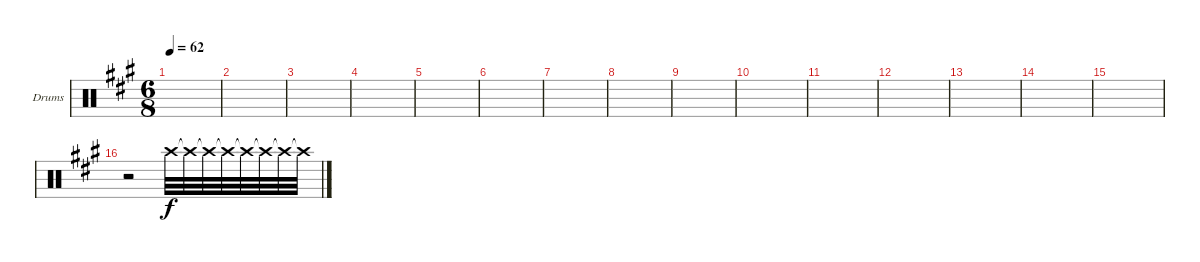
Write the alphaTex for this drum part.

\defaultSystemsLayout 4
\bracketExtendMode groupsimilarinstruments
\firstSystemTrackNameOrientation horizontal
\otherSystemsTrackNameOrientation horizontal
\track ("Drums" "Drums") {instrument percussion}
\staff {score}
\articulation defaults
\ts (6 8)
\tempo 62
\clef neutral
\scale
0.333333
\ks f#minor
|
\scale
0.333333 |
\scale
0.333333 |
\scale
0.333333 |
\scale
0.333333 |
\scale
0.333333 |
\scale
0.333333 |
\scale
0.333333 |
\scale
0.333333 |
\scale
0.333333 |
\scale
0.333333 |
\scale
0.333333 |
\scale
0.333333 |
|
|
r.2 "Crash high (hit)".32 "Crash high (hit)"{t}.32 "Crash high (hit)"{t}.32 "Crash high (hit)"{t}.32 "Crash high (hit)"{t}.32 "Crash high (hit)"{t}.32 "Crash high (hit)"{t}.32 "Crash high (hit)"{t}.32
